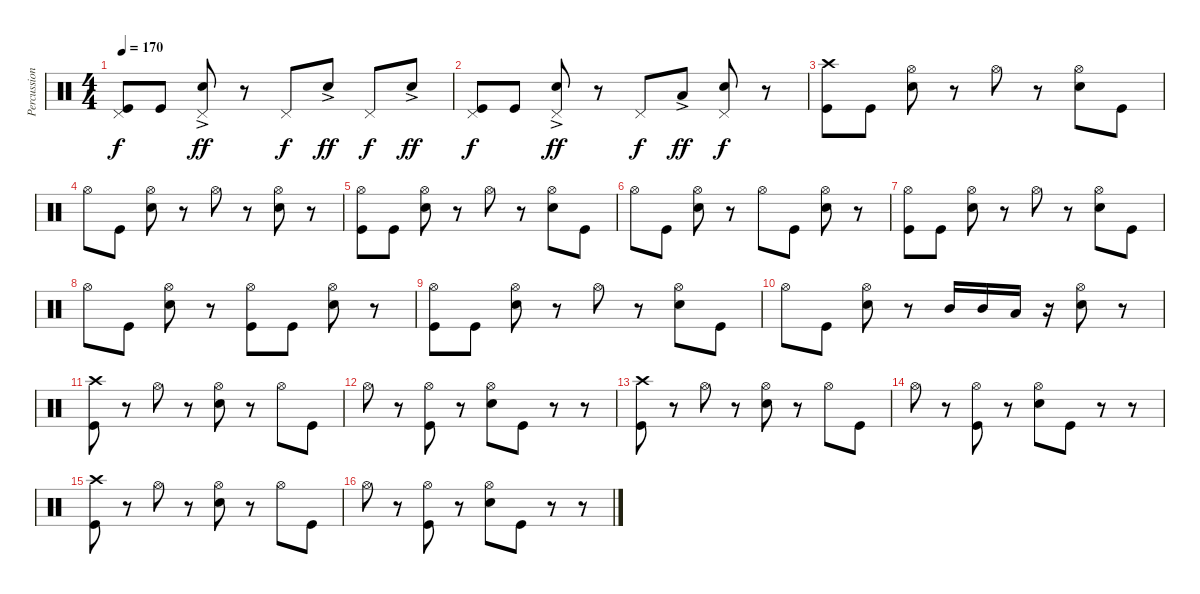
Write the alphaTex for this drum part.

\track ("Percussion" "Percussion") {instrument percussion}
\staff {score}
\articulation defaults
\ts (4 4)
\tempo 170
\clef neutral
\ks c
("Pedal Hi-Hat (hit)" "Kick (hit)").8{dy f} "Kick (hit)".8 ("Pedal Hi-Hat (hit)" "Snare (hit) 2"{ac}).8{dy ff} r.8 "Pedal Hi-Hat (hit)".8{dy f} "Snare (hit) 2"{ac}.8{dy ff} "Pedal Hi-Hat (hit)".8{dy f} "Snare (hit) 2"{ac}.8{dy ff} |
("Pedal Hi-Hat (hit)" "Kick (hit)").8{dy f} "Kick (hit)".8 ("Pedal Hi-Hat (hit)" "Snare (hit) 2"{ac}).8{dy ff} r.8 "Pedal Hi-Hat (hit)".8{dy f} "Low Tom (hit)"{ac}.8{dy ff} ("Pedal Hi-Hat (hit)" "Snare (hit) 2").8{dy f} r.8 |
("Crash high (hit)" "Kick (hit)").8 "Kick (hit)".8 ("Hi-Hat (open)" "Snare (hit) 2").8 r.8 "Hi-Hat (open)".8 r.8 ("Hi-Hat (open)" "Snare (hit) 2").8 "Kick (hit)".8 |
"Hi-Hat (open)".8 "Kick (hit)".8 ("Hi-Hat (open)" "Snare (hit) 2").8 r.8 "Hi-Hat (open)".8 r.8 ("Hi-Hat (open)" "Snare (hit) 2").8 r.8 |
("Hi-Hat (open)" "Kick (hit)").8 "Kick (hit)".8 ("Hi-Hat (open)" "Snare (hit) 2").8 r.8 "Hi-Hat (open)".8 r.8 ("Hi-Hat (open)" "Snare (hit) 2").8 "Kick (hit)".8 |
"Hi-Hat (open)".8 "Kick (hit)".8 ("Hi-Hat (open)" "Snare (hit) 2").8 r.8 "Hi-Hat (open)".8 "Kick (hit)".8 ("Hi-Hat (open)" "Snare (hit) 2").8 r.8 |
("Hi-Hat (open)" "Kick (hit)").8 "Kick (hit)".8 ("Hi-Hat (open)" "Snare (hit) 2").8 r.8 "Hi-Hat (open)".8 r.8 ("Hi-Hat (open)" "Snare (hit) 2").8 "Kick (hit)".8 |
"Hi-Hat (open)".8 "Kick (hit)".8 ("Hi-Hat (open)" "Snare (hit) 2").8 r.8 ("Hi-Hat (open)" "Kick (hit)").8 "Kick (hit)".8 ("Hi-Hat (open)" "Snare (hit) 2").8 r.8 |
("Hi-Hat (open)" "Kick (hit)").8 "Kick (hit)".8 ("Hi-Hat (open)" "Snare (hit) 2").8 r.8 "Hi-Hat (open)".8 r.8 ("Hi-Hat (open)" "Snare (hit) 2").8 "Kick (hit)".8 |
"Hi-Hat (open)".8 "Kick (hit)".8 ("Hi-Hat (open)" "Snare (hit) 2").8 r.8 "Mid Tom (hit)".16 "Mid Tom (hit)".16 "Low Tom (hit)".16 r.16 ("Hi-Hat (open)" "Snare (hit) 2").8 r.8 |
("Crash high (hit)" "Kick (hit)").8 r.8 "Hi-Hat (open)".8 r.8 ("Hi-Hat (open)" "Snare (hit) 2").8 r.8 "Hi-Hat (open)".8 "Kick (hit)".8 |
"Hi-Hat (open)".8 r.8 ("Hi-Hat (open)" "Kick (hit)").8 r.8 ("Hi-Hat (open)" "Snare (hit) 2").8 "Kick (hit)".8 r.8 r.8 |
("Crash high (hit)" "Kick (hit)").8 r.8 "Hi-Hat (open)".8 r.8 ("Hi-Hat (open)" "Snare (hit) 2").8 r.8 "Hi-Hat (open)".8 "Kick (hit)".8 |
"Hi-Hat (open)".8 r.8 ("Hi-Hat (open)" "Kick (hit)").8 r.8 ("Hi-Hat (open)" "Snare (hit) 2").8 "Kick (hit)".8 r.8 r.8 |
("Crash high (hit)" "Kick (hit)").8 r.8 "Hi-Hat (open)".8 r.8 ("Hi-Hat (open)" "Snare (hit) 2").8 r.8 "Hi-Hat (open)".8 "Kick (hit)".8 |
"Hi-Hat (open)".8 r.8 ("Hi-Hat (open)" "Kick (hit)").8 r.8 ("Hi-Hat (open)" "Snare (hit) 2").8 "Kick (hit)".8 r.8 r.8
